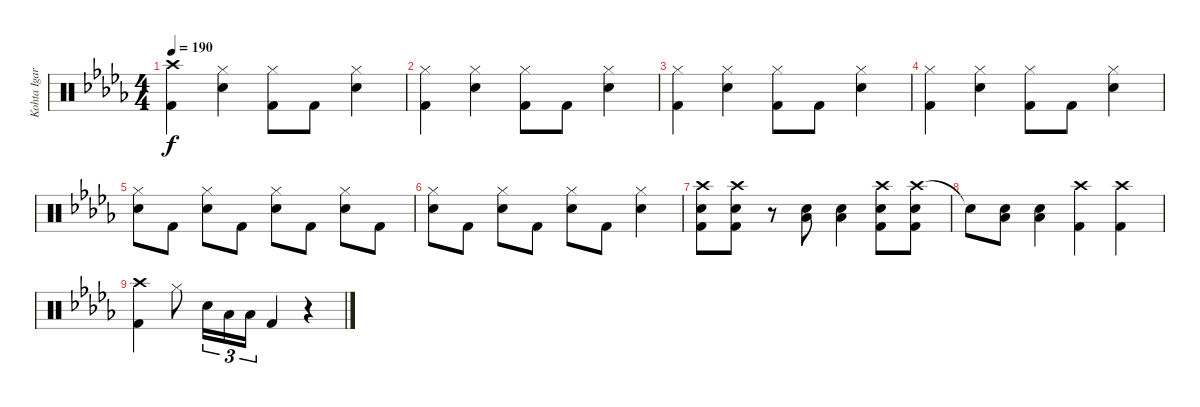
\track ("Kohta Igarashi" "Kohta Igar") {instrument percussion}
\staff {score}
\articulation defaults
\ts (4 4)
\tempo 190
\clef neutral
\ks db
("Crash high (hit)" "Kick (hit) 2").4{dy f} ("Hi-Hat (closed)" "Electric Snare (hit)").4 ("Hi-Hat (closed)" "Kick (hit) 2").8 "Kick (hit) 2".8 ("Hi-Hat (closed)" "Electric Snare (hit)").4 |
("Hi-Hat (closed)" "Kick (hit) 2").4 ("Hi-Hat (closed)" "Electric Snare (hit)").4 ("Hi-Hat (closed)" "Kick (hit) 2").8 "Kick (hit) 2".8 ("Hi-Hat (closed)" "Electric Snare (hit)").4 |
("Hi-Hat (closed)" "Kick (hit) 2").4 ("Hi-Hat (closed)" "Electric Snare (hit)").4 ("Hi-Hat (closed)" "Kick (hit) 2").8 "Kick (hit) 2".8 ("Hi-Hat (closed)" "Electric Snare (hit)").4 |
("Hi-Hat (closed)" "Kick (hit) 2").4 ("Hi-Hat (closed)" "Electric Snare (hit)").4 ("Hi-Hat (closed)" "Kick (hit) 2").8 "Kick (hit) 2".8 ("Hi-Hat (closed)" "Electric Snare (hit)").4 |
("Hi-Hat (closed)" "Electric Snare (hit)").8 "Kick (hit) 2".8 ("Hi-Hat (closed)" "Electric Snare (hit)").8 "Kick (hit) 2".8 ("Hi-Hat (closed)" "Electric Snare (hit)").8 "Kick (hit) 2".8 ("Hi-Hat (closed)" "Electric Snare (hit)").8 "Kick (hit) 2".8 |
("Hi-Hat (closed)" "Electric Snare (hit)").8 "Kick (hit) 2".8 ("Hi-Hat (closed)" "Electric Snare (hit)").8 "Kick (hit) 2".8 ("Hi-Hat (closed)" "Electric Snare (hit)").8 "Kick (hit) 2".8 ("Hi-Hat (closed)" "Electric Snare (hit)").4 |
("Crash high (hit)" "Electric Snare (hit)" "Kick (hit) 2").8 ("Crash high (hit)" "Electric Snare (hit)" "Kick (hit) 2").8 r.8 ("Electric Snare (hit)" "Low Floor Tom (hit)").8 ("Electric Snare (hit)" "Low Floor Tom (hit)").4 ("Crash high (hit)" "Electric Snare (hit)" "Kick (hit) 2").8 ("Crash high (hit)" "Electric Snare (hit)" "Kick (hit) 2").8 |
"Snare (hit)"{t}.8 ("Electric Snare (hit)" "Low Floor Tom (hit)").8 ("Electric Snare (hit)" "Low Floor Tom (hit)").4 ("Crash high (hit)" "Kick (hit) 2").4 ("Crash high (hit)" "Kick (hit) 2").4 |
("Crash high (hit)" "Kick (hit) 2").4 "Hi-Hat (closed)".8 "Electric Snare (hit)".16{tu (3 2)} "Low Tom (hit)".16{tu (3 2)} "Low Floor Tom (hit)".16{tu (3 2)} "Kick (hit) 2".4 r.4
